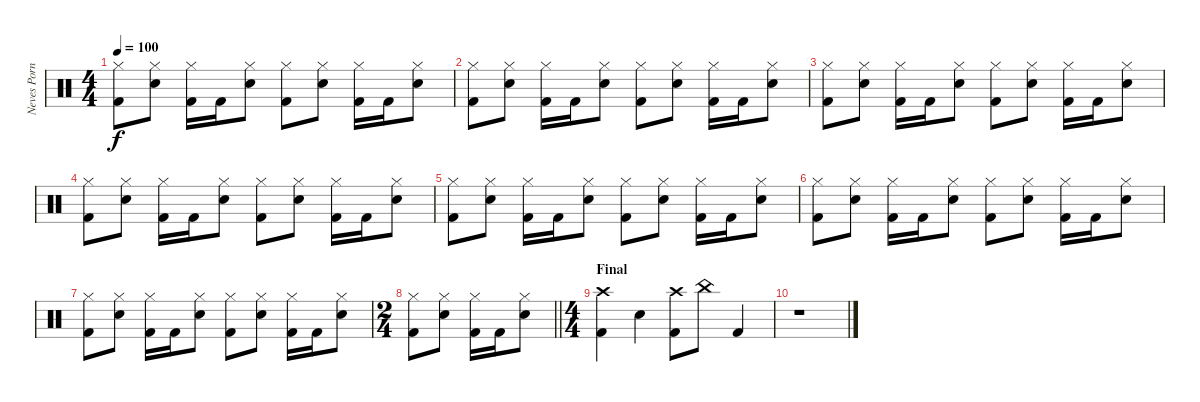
\track ("Neves Porntoy" "Neves Porn") {instrument percussion}
\staff {score}
\articulation defaults
\ts (4 4)
\tempo 100
\clef neutral
\ks c
("Kick (hit) 2" "Hi-Hat (closed)").8{dy f} ("Electric Snare (hit)" "Hi-Hat (closed)").8 ("Kick (hit) 2" "Hi-Hat (closed)").16 "Kick (hit) 2".16 ("Electric Snare (hit)" "Hi-Hat (closed)").8 ("Kick (hit) 2" "Hi-Hat (closed)").8 ("Electric Snare (hit)" "Hi-Hat (closed)").8 ("Kick (hit) 2" "Hi-Hat (closed)").16 "Kick (hit) 2".16 ("Electric Snare (hit)" "Hi-Hat (closed)").8 |
("Kick (hit) 2" "Hi-Hat (closed)").8 ("Electric Snare (hit)" "Hi-Hat (closed)").8 ("Kick (hit) 2" "Hi-Hat (closed)").16 "Kick (hit) 2".16 ("Electric Snare (hit)" "Hi-Hat (closed)").8 ("Kick (hit) 2" "Hi-Hat (closed)").8 ("Electric Snare (hit)" "Hi-Hat (closed)").8 ("Kick (hit) 2" "Hi-Hat (closed)").16 "Kick (hit) 2".16 ("Electric Snare (hit)" "Hi-Hat (closed)").8 |
("Kick (hit) 2" "Hi-Hat (closed)").8 ("Electric Snare (hit)" "Hi-Hat (closed)").8 ("Kick (hit) 2" "Hi-Hat (closed)").16 "Kick (hit) 2".16 ("Electric Snare (hit)" "Hi-Hat (closed)").8 ("Kick (hit) 2" "Hi-Hat (closed)").8 ("Electric Snare (hit)" "Hi-Hat (closed)").8 ("Kick (hit) 2" "Hi-Hat (closed)").16 "Kick (hit) 2".16 ("Electric Snare (hit)" "Hi-Hat (closed)").8 |
("Kick (hit) 2" "Hi-Hat (closed)").8 ("Electric Snare (hit)" "Hi-Hat (closed)").8 ("Kick (hit) 2" "Hi-Hat (closed)").16 "Kick (hit) 2".16 ("Electric Snare (hit)" "Hi-Hat (closed)").8 ("Kick (hit) 2" "Hi-Hat (closed)").8 ("Electric Snare (hit)" "Hi-Hat (closed)").8 ("Kick (hit) 2" "Hi-Hat (closed)").16 "Kick (hit) 2".16 ("Electric Snare (hit)" "Hi-Hat (closed)").8 |
("Kick (hit) 2" "Hi-Hat (closed)").8 ("Electric Snare (hit)" "Hi-Hat (closed)").8 ("Kick (hit) 2" "Hi-Hat (closed)").16 "Kick (hit) 2".16 ("Electric Snare (hit)" "Hi-Hat (closed)").8 ("Kick (hit) 2" "Hi-Hat (closed)").8 ("Electric Snare (hit)" "Hi-Hat (closed)").8 ("Kick (hit) 2" "Hi-Hat (closed)").16 "Kick (hit) 2".16 ("Electric Snare (hit)" "Hi-Hat (closed)").8 |
("Kick (hit) 2" "Hi-Hat (closed)").8 ("Electric Snare (hit)" "Hi-Hat (closed)").8 ("Kick (hit) 2" "Hi-Hat (closed)").16 "Kick (hit) 2".16 ("Electric Snare (hit)" "Hi-Hat (closed)").8 ("Kick (hit) 2" "Hi-Hat (closed)").8 ("Electric Snare (hit)" "Hi-Hat (closed)").8 ("Kick (hit) 2" "Hi-Hat (closed)").16 "Kick (hit) 2".16 ("Electric Snare (hit)" "Hi-Hat (closed)").8 |
("Kick (hit) 2" "Hi-Hat (closed)").8 ("Electric Snare (hit)" "Hi-Hat (closed)").8 ("Kick (hit) 2" "Hi-Hat (closed)").16 "Kick (hit) 2".16 ("Electric Snare (hit)" "Hi-Hat (closed)").8 ("Kick (hit) 2" "Hi-Hat (closed)").8 ("Electric Snare (hit)" "Hi-Hat (closed)").8 ("Kick (hit) 2" "Hi-Hat (closed)").16 "Kick (hit) 2".16 ("Electric Snare (hit)" "Hi-Hat (closed)").8 |
\ts (2 4)
\barLineRight lightlight
("Kick (hit) 2" "Hi-Hat (closed)").8 ("Electric Snare (hit)" "Hi-Hat (closed)").8 ("Kick (hit) 2" "Hi-Hat (closed)").16 "Kick (hit) 2".16 ("Electric Snare (hit)" "Hi-Hat (closed)").8 |
\ts (4 4)
\section ("" "Final")
("Kick (hit) 2" "Crash high (hit)").4 "Electric Snare (hit)".4 ("Kick (hit) 2" "Crash high (hit)").8 "China (hit)".8 "Kick (hit) 2".4 |
r.1
